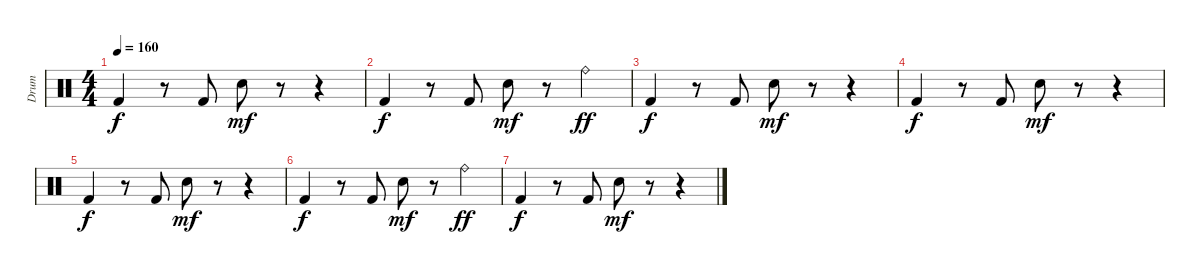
\track ("Drum" "Drum") {instrument percussion}
\staff {score}
\articulation defaults
\ts (4 4)
\tempo 160
\clef neutral
\ks c "Kick (hit) 2".4{dy f}
r.8 "Kick (hit) 2".8 "Electric Snare (hit)".8{dy mf} r.8 r.4 |
"Kick (hit) 2".4{dy f} r.8 "Kick (hit) 2".8 "Electric Snare (hit)".8{dy mf} r.8 "Ride (bell)".4{dy ff} |
"Kick (hit) 2".4{dy f} r.8 "Kick (hit) 2".8 "Electric Snare (hit)".8{dy mf} r.8 r.4 |
"Kick (hit) 2".4{dy f} r.8 "Kick (hit) 2".8 "Electric Snare (hit)".8{dy mf} r.8 r.4 |
"Kick (hit) 2".4{dy f} r.8 "Kick (hit) 2".8 "Electric Snare (hit)".8{dy mf} r.8 r.4 |
"Kick (hit) 2".4{dy f} r.8 "Kick (hit) 2".8 "Electric Snare (hit)".8{dy mf} r.8 "Ride (bell)".4{dy ff} |
"Kick (hit) 2".4{dy f} r.8 "Kick (hit) 2".8 "Electric Snare (hit)".8{dy mf} r.8 r.4
